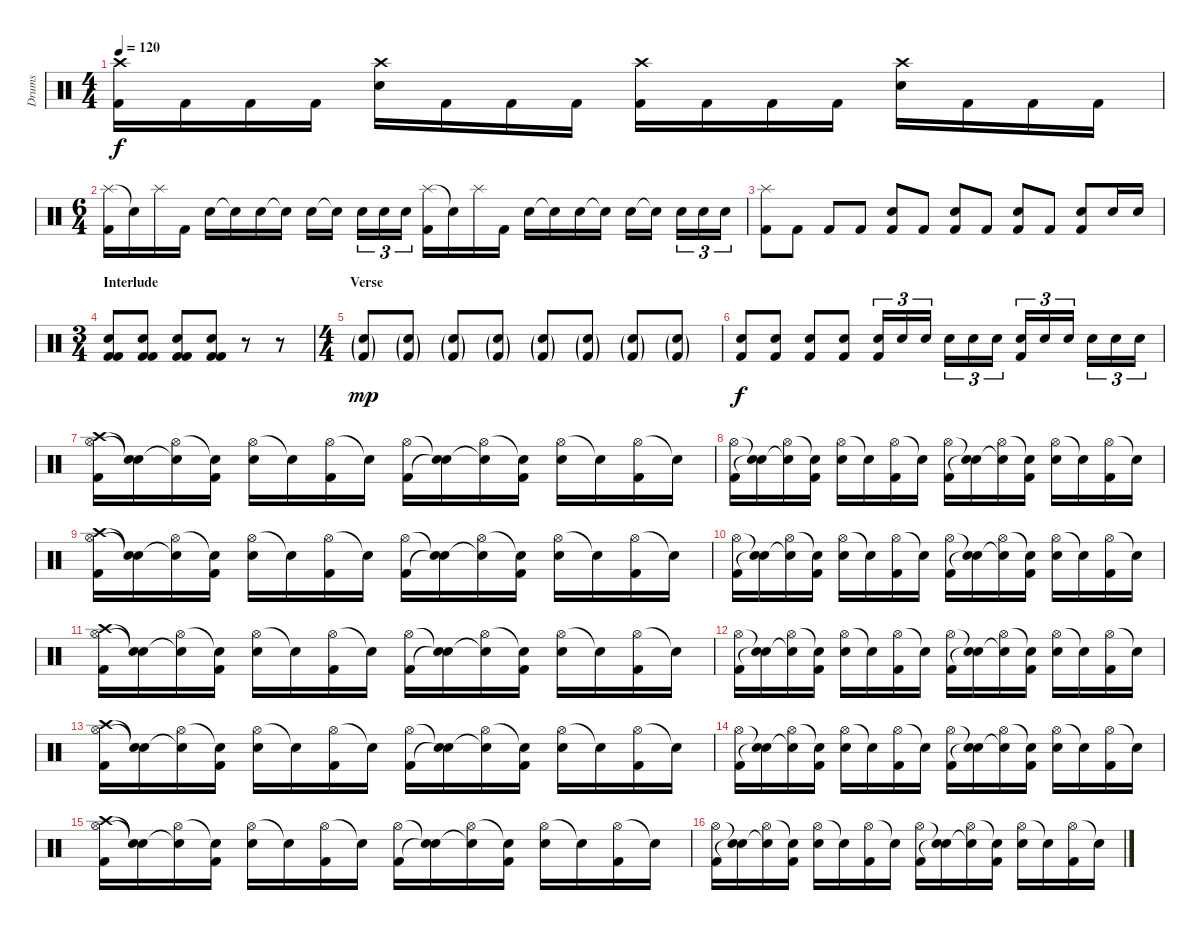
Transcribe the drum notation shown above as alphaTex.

\track ("Drums" "Drums") {instrument percussion}
\staff {score}
\articulation defaults
\ts (4 4)
\tempo 120
\clef neutral
\ks c
("Crash high (hit)" "Kick (hit) 2").16{dy f} "Kick (hit) 2".16 "Kick (hit) 2".16 "Kick (hit) 2".16 ("Crash high (hit)" "Electric Snare (hit)").16 "Kick (hit) 2".16 "Kick (hit) 2".16 "Kick (hit) 2".16 ("Crash high (hit)" "Kick (hit) 2").16 "Kick (hit) 2".16 "Kick (hit) 2".16 "Kick (hit) 2".16 ("Crash high (hit)" "Electric Snare (hit)").16 "Kick (hit) 2".16 "Kick (hit) 2".16 "Kick (hit) 2".16 |
\ts (6 4)
("Splash (hit)" "Kick (hit) 2").16 "Snare (hit)"{t}.16 "Splash (hit)".16 "Kick (hit) 2".16 "Electric Snare (hit)".16 "Snare (hit)"{t}.16 "Electric Snare (hit)".16 "Snare (hit)"{t}.16 "Electric Snare (hit)".16 "Snare (hit)"{t}.16 "Electric Snare (hit)".16{tu (3 2)} "Electric Snare (hit)".16{tu (3 2)} "Electric Snare (hit)".16{tu (3 2)} ("Splash (hit)" "Kick (hit) 2").16 "Snare (hit)"{t}.16 "Splash (hit)".16 "Kick (hit) 2".16 "Electric Snare (hit)".16 "Snare (hit)"{t}.16 "Electric Snare (hit)".16 "Snare (hit)"{t}.16 "Electric Snare (hit)".16 "Snare (hit)"{t}.16 "Electric Snare (hit)".16{tu (3 2)} "Electric Snare (hit)".16{tu (3 2)} "Electric Snare (hit)".16{tu (3 2)} |
("Splash (hit)" "Kick (hit) 2").8 "Kick (hit) 2".8 "Kick (hit) 2".8 "Kick (hit) 2".8 ("Electric Snare (hit)" "Kick (hit) 2").8 "Kick (hit) 2".8 ("Electric Snare (hit)" "Kick (hit) 2").8 "Kick (hit) 2".8 ("Electric Snare (hit)" "Kick (hit) 2").8 "Kick (hit) 2".8 ("Electric Snare (hit)" "Kick (hit) 2").8 "Electric Snare (hit)".16 "Electric Snare (hit)".16 |
\ts (3 4)
\section ("" "Interlude")
("Electric Snare (hit)" "Kick (hit) 2" "Kick (hit) 2").8 ("Electric Snare (hit)" "Kick (hit) 2" "Kick (hit) 2").8 ("Electric Snare (hit)" "Kick (hit) 2" "Kick (hit) 2").8 ("Electric Snare (hit)" "Kick (hit) 2" "Kick (hit) 2").8 r.8 r.8 |
\ts (4 4)
\section ("" "Verse")
("Electric Snare (hit)"{g} "Kick (hit) 2"{g}).8{dy mp volume 5} ("Electric Snare (hit)"{g} "Kick (hit) 2"{g}).8{volume 9} ("Electric Snare (hit)"{g} "Kick (hit) 2"{g}).8{volume 11} ("Electric Snare (hit)"{g} "Kick (hit) 2"{g}).8{volume 12} ("Electric Snare (hit)"{g} "Kick (hit) 2"{g}).8{volume 13} ("Electric Snare (hit)"{g} "Kick (hit) 2"{g}).8{volume 13} ("Electric Snare (hit)"{g} "Kick (hit) 2"{g}).8 ("Electric Snare (hit)"{g} "Kick (hit) 2"{g}).8 |
("Electric Snare (hit)" "Kick (hit) 2").8{dy f} ("Electric Snare (hit)" "Kick (hit) 2").8 ("Electric Snare (hit)" "Kick (hit) 2").8 ("Electric Snare (hit)" "Kick (hit) 2").8 ("Electric Snare (hit)" "Kick (hit) 2").16{tu (3 2)} "Electric Snare (hit)".16{tu (3 2)} "Electric Snare (hit)".16{tu (3 2)} "Electric Snare (hit)".16{tu (3 2)} "Electric Snare (hit)".16{tu (3 2)} "Electric Snare (hit)".16{tu (3 2)} ("Electric Snare (hit)" "Kick (hit) 2").16{tu (3 2)} "Electric Snare (hit)".16{tu (3 2)} "Electric Snare (hit)".16{tu (3 2)} "Electric Snare (hit)".16{tu (3 2)} "Electric Snare (hit)".16{tu (3 2)} "Electric Snare (hit)".16{tu (3 2)} |
("Crash high (hit)" "Hi-Hat (open)" "Kick (hit) 2").16 ("Snare (hit)"{t} "Snare (hit)"{t}).16 ("Hi-Hat (open)" "Snare (hit)"{t}).16 ("Snare (hit)"{t} "Kick (hit) 2").16 ("Hi-Hat (open)" "Electric Snare (hit)").16 "Snare (hit)"{t}.16 ("Hi-Hat (open)" "Kick (hit) 2").16 "Snare (hit)"{t}.16 ("Hi-Hat (open)" "Kick (hit) 2").16 ("Snare (hit)"{t} "Snare (hit)"{t}).16 ("Hi-Hat (open)" "Snare (hit)"{t}).16 ("Snare (hit)"{t} "Kick (hit) 2").16 ("Hi-Hat (open)" "Electric Snare (hit)").16 "Snare (hit)"{t}.16 ("Hi-Hat (open)" "Kick (hit) 2").16 "Snare (hit)"{t}.16 |
("Hi-Hat (open)" "Kick (hit) 2").16 ("Snare (hit)"{t} "Snare (hit)"{t}).16 ("Hi-Hat (open)" "Snare (hit)"{t}).16 ("Snare (hit)"{t} "Kick (hit) 2").16 ("Hi-Hat (open)" "Electric Snare (hit)").16 "Snare (hit)"{t}.16 ("Hi-Hat (open)" "Kick (hit) 2").16 "Snare (hit)"{t}.16 ("Hi-Hat (open)" "Kick (hit) 2").16 ("Snare (hit)"{t} "Snare (hit)"{t}).16 ("Hi-Hat (open)" "Snare (hit)"{t}).16 ("Snare (hit)"{t} "Kick (hit) 2").16 ("Hi-Hat (open)" "Electric Snare (hit)").16 "Snare (hit)"{t}.16 ("Hi-Hat (open)" "Kick (hit) 2").16 "Snare (hit)"{t}.16 |
("Crash high (hit)" "Hi-Hat (open)" "Kick (hit) 2").16 ("Snare (hit)"{t} "Snare (hit)"{t}).16 ("Hi-Hat (open)" "Snare (hit)"{t}).16 ("Snare (hit)"{t} "Kick (hit) 2").16 ("Hi-Hat (open)" "Electric Snare (hit)").16 "Snare (hit)"{t}.16 ("Hi-Hat (open)" "Kick (hit) 2").16 "Snare (hit)"{t}.16 ("Hi-Hat (open)" "Kick (hit) 2").16 ("Snare (hit)"{t} "Snare (hit)"{t}).16 ("Hi-Hat (open)" "Snare (hit)"{t}).16 ("Snare (hit)"{t} "Kick (hit) 2").16 ("Hi-Hat (open)" "Electric Snare (hit)").16 "Snare (hit)"{t}.16 ("Hi-Hat (open)" "Kick (hit) 2").16 "Snare (hit)"{t}.16 |
("Hi-Hat (open)" "Kick (hit) 2").16 ("Snare (hit)"{t} "Snare (hit)"{t}).16 ("Hi-Hat (open)" "Snare (hit)"{t}).16 ("Snare (hit)"{t} "Kick (hit) 2").16 ("Hi-Hat (open)" "Electric Snare (hit)").16 "Snare (hit)"{t}.16 ("Hi-Hat (open)" "Kick (hit) 2").16 "Snare (hit)"{t}.16 ("Hi-Hat (open)" "Kick (hit) 2").16 ("Snare (hit)"{t} "Snare (hit)"{t}).16 ("Hi-Hat (open)" "Snare (hit)"{t}).16 ("Snare (hit)"{t} "Kick (hit) 2").16 ("Hi-Hat (open)" "Electric Snare (hit)").16 "Snare (hit)"{t}.16 ("Hi-Hat (open)" "Kick (hit) 2").16 "Snare (hit)"{t}.16 |
("Crash high (hit)" "Hi-Hat (open)" "Kick (hit) 2").16 ("Snare (hit)"{t} "Snare (hit)"{t}).16 ("Hi-Hat (open)" "Snare (hit)"{t}).16 ("Snare (hit)"{t} "Kick (hit) 2").16 ("Hi-Hat (open)" "Electric Snare (hit)").16 "Snare (hit)"{t}.16 ("Hi-Hat (open)" "Kick (hit) 2").16 "Snare (hit)"{t}.16 ("Hi-Hat (open)" "Kick (hit) 2").16 ("Snare (hit)"{t} "Snare (hit)"{t}).16 ("Hi-Hat (open)" "Snare (hit)"{t}).16 ("Snare (hit)"{t} "Kick (hit) 2").16 ("Hi-Hat (open)" "Electric Snare (hit)").16 "Snare (hit)"{t}.16 ("Hi-Hat (open)" "Kick (hit) 2").16 "Snare (hit)"{t}.16 |
("Hi-Hat (open)" "Kick (hit) 2").16 ("Snare (hit)"{t} "Snare (hit)"{t}).16 ("Hi-Hat (open)" "Snare (hit)"{t}).16 ("Snare (hit)"{t} "Kick (hit) 2").16 ("Hi-Hat (open)" "Electric Snare (hit)").16 "Snare (hit)"{t}.16 ("Hi-Hat (open)" "Kick (hit) 2").16 "Snare (hit)"{t}.16 ("Hi-Hat (open)" "Kick (hit) 2").16 ("Snare (hit)"{t} "Snare (hit)"{t}).16 ("Hi-Hat (open)" "Snare (hit)"{t}).16 ("Snare (hit)"{t} "Kick (hit) 2").16 ("Hi-Hat (open)" "Electric Snare (hit)").16 "Snare (hit)"{t}.16 ("Hi-Hat (open)" "Kick (hit) 2").16 "Snare (hit)"{t}.16 |
("Crash high (hit)" "Hi-Hat (open)" "Kick (hit) 2").16 ("Snare (hit)"{t} "Snare (hit)"{t}).16 ("Hi-Hat (open)" "Snare (hit)"{t}).16 ("Snare (hit)"{t} "Kick (hit) 2").16 ("Hi-Hat (open)" "Electric Snare (hit)").16 "Snare (hit)"{t}.16 ("Hi-Hat (open)" "Kick (hit) 2").16 "Snare (hit)"{t}.16 ("Hi-Hat (open)" "Kick (hit) 2").16 ("Snare (hit)"{t} "Snare (hit)"{t}).16 ("Hi-Hat (open)" "Snare (hit)"{t}).16 ("Snare (hit)"{t} "Kick (hit) 2").16 ("Hi-Hat (open)" "Electric Snare (hit)").16 "Snare (hit)"{t}.16 ("Hi-Hat (open)" "Kick (hit) 2").16 "Snare (hit)"{t}.16 |
("Hi-Hat (open)" "Kick (hit) 2").16 ("Snare (hit)"{t} "Snare (hit)"{t}).16 ("Hi-Hat (open)" "Snare (hit)"{t}).16 ("Snare (hit)"{t} "Kick (hit) 2").16 ("Hi-Hat (open)" "Electric Snare (hit)").16 "Snare (hit)"{t}.16 ("Hi-Hat (open)" "Kick (hit) 2").16 "Snare (hit)"{t}.16 ("Hi-Hat (open)" "Kick (hit) 2").16 ("Snare (hit)"{t} "Snare (hit)"{t}).16 ("Hi-Hat (open)" "Snare (hit)"{t}).16 ("Snare (hit)"{t} "Kick (hit) 2").16 ("Hi-Hat (open)" "Electric Snare (hit)").16 "Snare (hit)"{t}.16 ("Hi-Hat (open)" "Kick (hit) 2").16 "Snare (hit)"{t}.16 |
("Crash high (hit)" "Hi-Hat (open)" "Kick (hit) 2").16 ("Snare (hit)"{t} "Snare (hit)"{t}).16 ("Hi-Hat (open)" "Snare (hit)"{t}).16 ("Snare (hit)"{t} "Kick (hit) 2").16 ("Hi-Hat (open)" "Electric Snare (hit)").16 "Snare (hit)"{t}.16 ("Hi-Hat (open)" "Kick (hit) 2").16 "Snare (hit)"{t}.16 ("Hi-Hat (open)" "Kick (hit) 2").16 ("Snare (hit)"{t} "Snare (hit)"{t}).16 ("Hi-Hat (open)" "Snare (hit)"{t}).16 ("Snare (hit)"{t} "Kick (hit) 2").16 ("Hi-Hat (open)" "Electric Snare (hit)").16 "Snare (hit)"{t}.16 ("Hi-Hat (open)" "Kick (hit) 2").16 "Snare (hit)"{t}.16 |
("Hi-Hat (open)" "Kick (hit) 2").16 ("Snare (hit)"{t} "Snare (hit)"{t}).16 ("Hi-Hat (open)" "Snare (hit)"{t}).16 ("Snare (hit)"{t} "Kick (hit) 2").16 ("Hi-Hat (open)" "Electric Snare (hit)").16 "Snare (hit)"{t}.16 ("Hi-Hat (open)" "Kick (hit) 2").16 "Snare (hit)"{t}.16 ("Hi-Hat (open)" "Kick (hit) 2").16 ("Snare (hit)"{t} "Snare (hit)"{t}).16 ("Hi-Hat (open)" "Snare (hit)"{t}).16 ("Snare (hit)"{t} "Kick (hit) 2").16 ("Hi-Hat (open)" "Electric Snare (hit)").16 "Snare (hit)"{t}.16 ("Hi-Hat (open)" "Kick (hit) 2").16 "Snare (hit)"{t}.16
